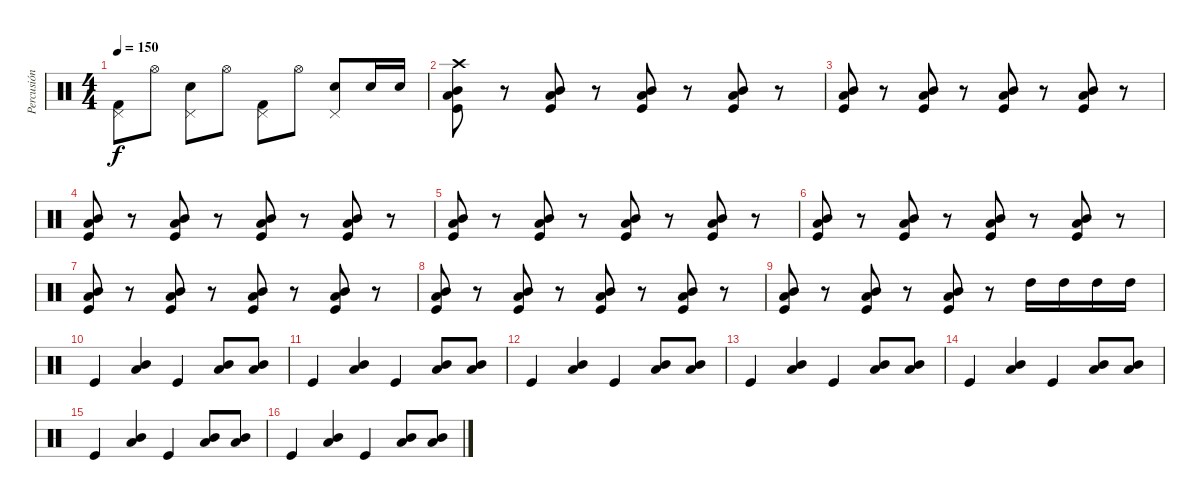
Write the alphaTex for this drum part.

\track ("Percusión" "Percusión") {instrument percussion}
\staff {score}
\articulation defaults
\ts (4 4)
\tempo 150
\clef neutral
\ks c
("Pedal Hi-Hat (hit)" "Kick (hit) 2").8{dy f} "Hi-Hat (open)".8 ("Pedal Hi-Hat (hit)" "Electric Snare (hit)").8 "Hi-Hat (open)".8 ("Pedal Hi-Hat (hit)" "Kick (hit) 2").8 "Hi-Hat (open)".8 ("Pedal Hi-Hat (hit)" "Electric Snare (hit)").8 "Electric Snare (hit)".16 "Electric Snare (hit)".16 |
("Crash high (hit)" "Low Tom (hit)" "Mid Tom (hit)" "Kick (hit)").8 r.8 ("Low Tom (hit)" "Mid Tom (hit)" "Kick (hit)").8 r.8 ("Low Tom (hit)" "Mid Tom (hit)" "Kick (hit)").8 r.8 ("Low Tom (hit)" "Mid Tom (hit)" "Kick (hit)").8 r.8 |
("Low Tom (hit)" "Mid Tom (hit)" "Kick (hit)").8 r.8 ("Low Tom (hit)" "Mid Tom (hit)" "Kick (hit)").8 r.8 ("Low Tom (hit)" "Mid Tom (hit)" "Kick (hit)").8 r.8 ("Low Tom (hit)" "Mid Tom (hit)" "Kick (hit)").8 r.8 |
("Low Tom (hit)" "Mid Tom (hit)" "Kick (hit)").8 r.8 ("Low Tom (hit)" "Mid Tom (hit)" "Kick (hit)").8 r.8 ("Low Tom (hit)" "Mid Tom (hit)" "Kick (hit)").8 r.8 ("Low Tom (hit)" "Mid Tom (hit)" "Kick (hit)").8 r.8 |
("Low Tom (hit)" "Mid Tom (hit)" "Kick (hit)").8 r.8 ("Low Tom (hit)" "Mid Tom (hit)" "Kick (hit)").8 r.8 ("Low Tom (hit)" "Mid Tom (hit)" "Kick (hit)").8 r.8 ("Low Tom (hit)" "Mid Tom (hit)" "Kick (hit)").8 r.8 |
("Low Tom (hit)" "Mid Tom (hit)" "Kick (hit)").8 r.8 ("Low Tom (hit)" "Mid Tom (hit)" "Kick (hit)").8 r.8 ("Low Tom (hit)" "Mid Tom (hit)" "Kick (hit)").8 r.8 ("Low Tom (hit)" "Mid Tom (hit)" "Kick (hit)").8 r.8 |
("Low Tom (hit)" "Mid Tom (hit)" "Kick (hit)").8 r.8 ("Low Tom (hit)" "Mid Tom (hit)" "Kick (hit)").8 r.8 ("Low Tom (hit)" "Mid Tom (hit)" "Kick (hit)").8 r.8 ("Low Tom (hit)" "Mid Tom (hit)" "Kick (hit)").8 r.8 |
("Low Tom (hit)" "Mid Tom (hit)" "Kick (hit)").8 r.8 ("Low Tom (hit)" "Mid Tom (hit)" "Kick (hit)").8 r.8 ("Low Tom (hit)" "Mid Tom (hit)" "Kick (hit)").8 r.8 ("Low Tom (hit)" "Mid Tom (hit)" "Kick (hit)").8 r.8 |
("Low Tom (hit)" "Mid Tom (hit)" "Kick (hit)").8 r.8 ("Low Tom (hit)" "Mid Tom (hit)" "Kick (hit)").8 r.8 ("Low Tom (hit)" "Mid Tom (hit)" "Kick (hit)").8 r.8 "High Tom (hit)".16 "High Tom (hit)".16 "High Tom (hit)".16 "High Tom (hit)".16 |
"Kick (hit)".4 ("Low Tom (hit)" "Mid Tom (hit)").4 "Kick (hit)".4 ("Low Tom (hit)" "Mid Tom (hit)").8 ("Low Tom (hit)" "Mid Tom (hit)").8 |
"Kick (hit)".4 ("Low Tom (hit)" "Mid Tom (hit)").4 "Kick (hit)".4 ("Low Tom (hit)" "Mid Tom (hit)").8 ("Low Tom (hit)" "Mid Tom (hit)").8 |
"Kick (hit)".4 ("Low Tom (hit)" "Mid Tom (hit)").4 "Kick (hit)".4 ("Low Tom (hit)" "Mid Tom (hit)").8 ("Low Tom (hit)" "Mid Tom (hit)").8 |
"Kick (hit)".4 ("Low Tom (hit)" "Mid Tom (hit)").4 "Kick (hit)".4 ("Low Tom (hit)" "Mid Tom (hit)").8 ("Low Tom (hit)" "Mid Tom (hit)").8 |
"Kick (hit)".4 ("Low Tom (hit)" "Mid Tom (hit)").4 "Kick (hit)".4 ("Low Tom (hit)" "Mid Tom (hit)").8 ("Low Tom (hit)" "Mid Tom (hit)").8 |
"Kick (hit)".4 ("Low Tom (hit)" "Mid Tom (hit)").4 "Kick (hit)".4 ("Low Tom (hit)" "Mid Tom (hit)").8 ("Low Tom (hit)" "Mid Tom (hit)").8 |
"Kick (hit)".4 ("Low Tom (hit)" "Mid Tom (hit)").4 "Kick (hit)".4 ("Low Tom (hit)" "Mid Tom (hit)").8 ("Low Tom (hit)" "Mid Tom (hit)").8
